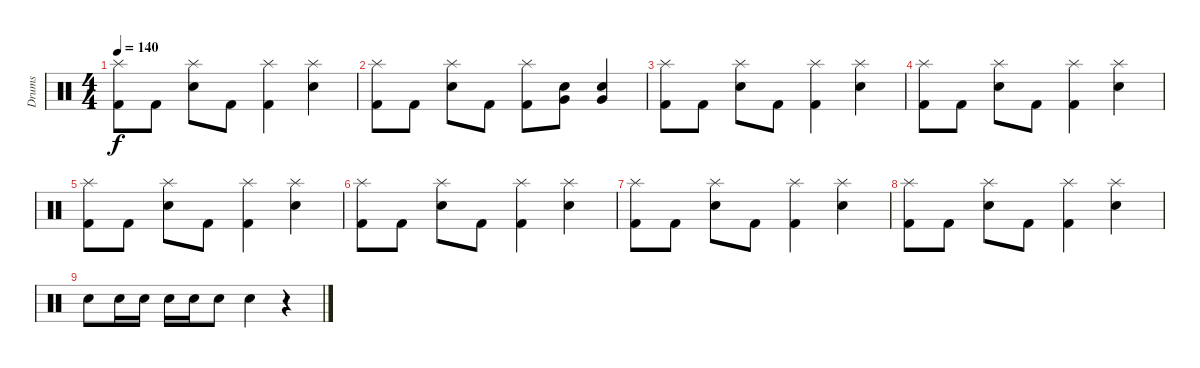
\track ("Drums" "Drums") {instrument percussion}
\staff {score}
\articulation defaults
\ts (4 4)
\tempo 140
\clef neutral
\ks c
("Splash (hit)" "Kick (hit) 2").8{dy f} "Kick (hit) 2".8 ("Splash (hit)" "Electric Snare (hit)").8 "Kick (hit) 2".8 ("Splash (hit)" "Kick (hit) 2").4 ("Splash (hit)" "Electric Snare (hit)").4 |
("Splash (hit)" "Kick (hit) 2").8 "Kick (hit) 2".8 ("Splash (hit)" "Electric Snare (hit)").8 "Kick (hit) 2".8 ("Splash (hit)" "Kick (hit) 2").8 ("Electric Snare (hit)" "Very Low Tom (hit)").8 ("Electric Snare (hit)" "Very Low Tom (hit)").4 |
("Splash (hit)" "Kick (hit) 2").8 "Kick (hit) 2".8 ("Splash (hit)" "Electric Snare (hit)").8 "Kick (hit) 2".8 ("Splash (hit)" "Kick (hit) 2").4 ("Splash (hit)" "Electric Snare (hit)").4 |
("Splash (hit)" "Kick (hit) 2").8 "Kick (hit) 2".8 ("Splash (hit)" "Electric Snare (hit)").8 "Kick (hit) 2".8 ("Splash (hit)" "Kick (hit) 2").4 ("Splash (hit)" "Electric Snare (hit)").4 |
("Splash (hit)" "Kick (hit) 2").8 "Kick (hit) 2".8 ("Splash (hit)" "Electric Snare (hit)").8 "Kick (hit) 2".8 ("Splash (hit)" "Kick (hit) 2").4 ("Splash (hit)" "Electric Snare (hit)").4 |
("Splash (hit)" "Kick (hit) 2").8 "Kick (hit) 2".8 ("Splash (hit)" "Electric Snare (hit)").8 "Kick (hit) 2".8 ("Splash (hit)" "Kick (hit) 2").4 ("Splash (hit)" "Electric Snare (hit)").4 |
("Splash (hit)" "Kick (hit) 2").8 "Kick (hit) 2".8 ("Splash (hit)" "Electric Snare (hit)").8 "Kick (hit) 2".8 ("Splash (hit)" "Kick (hit) 2").4 ("Splash (hit)" "Electric Snare (hit)").4 |
("Splash (hit)" "Kick (hit) 2").8 "Kick (hit) 2".8 ("Splash (hit)" "Electric Snare (hit)").8 "Kick (hit) 2".8 ("Splash (hit)" "Kick (hit) 2").4 ("Splash (hit)" "Electric Snare (hit)").4 |
"Electric Snare (hit)".8 "Electric Snare (hit)".16 "Electric Snare (hit)".16 "Electric Snare (hit)".16 "Electric Snare (hit)".16 "Electric Snare (hit)".8 "Electric Snare (hit)".4 r.4
